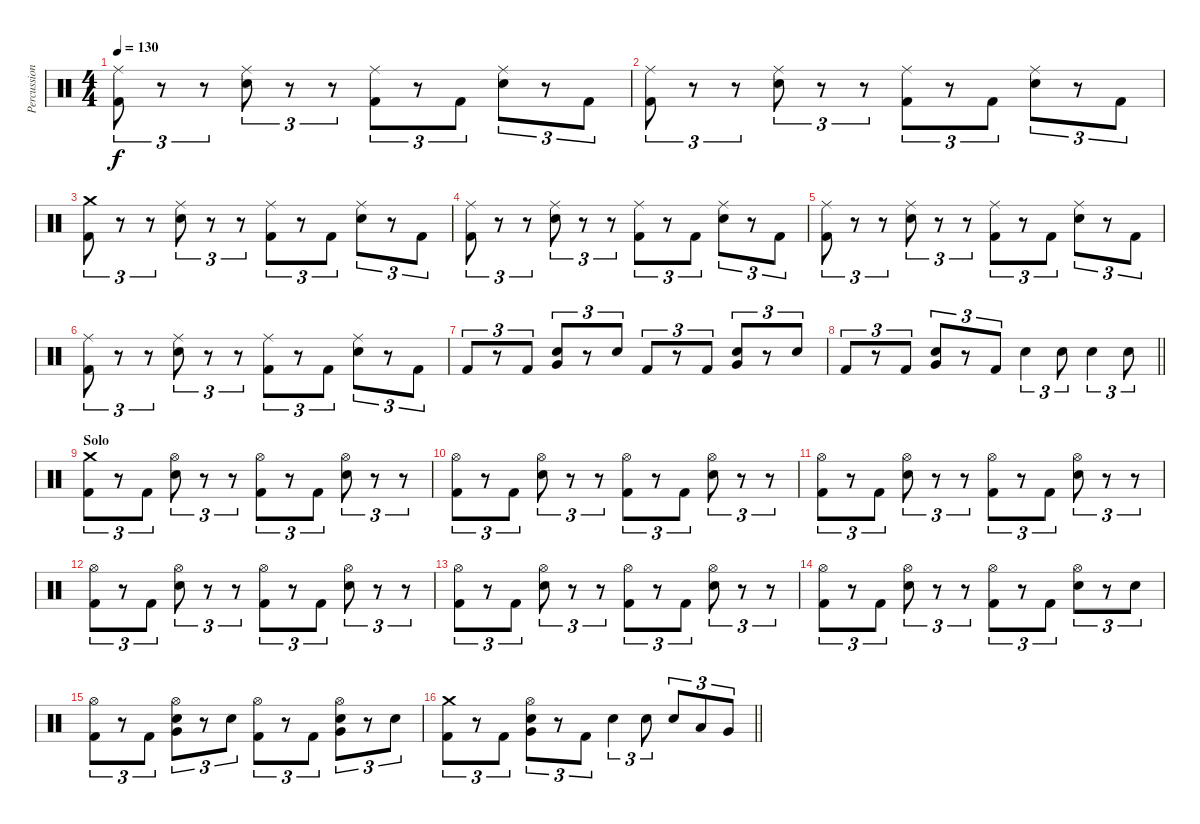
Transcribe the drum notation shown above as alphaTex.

\track ("Percussion" "Percussion") {instrument percussion}
\staff {score}
\articulation defaults
\ts (4 4)
\tempo 130
\clef neutral
\ks c
("Ride (middle)" "Kick (hit) 2").8{tu (3 2) dy f} r.8{tu (3 2)} r.8{tu (3 2)} ("Ride (middle)" "Snare (hit) 2").8{tu (3 2)} r.8{tu (3 2)} r.8{tu (3 2)} ("Ride (middle)" "Kick (hit) 2").8{tu (3 2)} r.8{tu (3 2)} "Kick (hit) 2".8{tu (3 2)} ("Ride (middle)" "Snare (hit) 2").8{tu (3 2)} r.8{tu (3 2)} "Kick (hit) 2".8{tu (3 2)} |
("Ride (middle)" "Kick (hit) 2").8{tu (3 2)} r.8{tu (3 2)} r.8{tu (3 2)} ("Ride (middle)" "Snare (hit) 2").8{tu (3 2)} r.8{tu (3 2)} r.8{tu (3 2)} ("Ride (middle)" "Kick (hit) 2").8{tu (3 2)} r.8{tu (3 2)} "Kick (hit) 2".8{tu (3 2)} ("Ride (middle)" "Snare (hit) 2").8{tu (3 2)} r.8{tu (3 2)} "Kick (hit) 2".8{tu (3 2)} |
("Crash medium (hit)" "Kick (hit) 2").8{tu (3 2)} r.8{tu (3 2)} r.8{tu (3 2)} ("Ride (middle)" "Snare (hit) 2").8{tu (3 2)} r.8{tu (3 2)} r.8{tu (3 2)} ("Ride (middle)" "Kick (hit) 2").8{tu (3 2)} r.8{tu (3 2)} "Kick (hit) 2".8{tu (3 2)} ("Ride (middle)" "Snare (hit) 2").8{tu (3 2)} r.8{tu (3 2)} "Kick (hit) 2".8{tu (3 2)} |
("Ride (middle)" "Kick (hit) 2").8{tu (3 2)} r.8{tu (3 2)} r.8{tu (3 2)} ("Ride (middle)" "Snare (hit) 2").8{tu (3 2)} r.8{tu (3 2)} r.8{tu (3 2)} ("Ride (middle)" "Kick (hit) 2").8{tu (3 2)} r.8{tu (3 2)} "Kick (hit) 2".8{tu (3 2)} ("Ride (middle)" "Snare (hit) 2").8{tu (3 2)} r.8{tu (3 2)} "Kick (hit) 2".8{tu (3 2)} |
("Ride (middle)" "Kick (hit) 2").8{tu (3 2)} r.8{tu (3 2)} r.8{tu (3 2)} ("Ride (middle)" "Snare (hit) 2").8{tu (3 2)} r.8{tu (3 2)} r.8{tu (3 2)} ("Ride (middle)" "Kick (hit) 2").8{tu (3 2)} r.8{tu (3 2)} "Kick (hit) 2".8{tu (3 2)} ("Ride (middle)" "Snare (hit) 2").8{tu (3 2)} r.8{tu (3 2)} "Kick (hit) 2".8{tu (3 2)} |
("Ride (middle)" "Kick (hit) 2").8{tu (3 2)} r.8{tu (3 2)} r.8{tu (3 2)} ("Ride (middle)" "Snare (hit) 2").8{tu (3 2)} r.8{tu (3 2)} r.8{tu (3 2)} ("Ride (middle)" "Kick (hit) 2").8{tu (3 2)} r.8{tu (3 2)} "Kick (hit) 2".8{tu (3 2)} ("Ride (middle)" "Snare (hit) 2").8{tu (3 2)} r.8{tu (3 2)} "Kick (hit) 2".8{tu (3 2)} |
"Kick (hit) 2".8{tu (3 2)} r.8{tu (3 2)} "Kick (hit) 2".8{tu (3 2)} ("Very Low Tom (hit)" "Snare (hit) 2").8{tu (3 2)} r.8{tu (3 2)} "Snare (hit) 2".8{tu (3 2)} "Kick (hit) 2".8{tu (3 2)} r.8{tu (3 2)} "Kick (hit) 2".8{tu (3 2)} ("Very Low Tom (hit)" "Snare (hit) 2").8{tu (3 2)} r.8{tu (3 2)} "Snare (hit) 2".8{tu (3 2)} |
\barLineRight lightlight "Kick (hit) 2".8{tu (3 2)}
r.8{tu (3 2)} "Kick (hit) 2".8{tu (3 2)} ("Very Low Tom (hit)" "Snare (hit) 2").8{tu (3 2)} r.8{tu (3 2)} "Kick (hit) 2".8{tu (3 2)} "Snare (hit) 2".4{tu (3 2)} "Snare (hit) 2".8{tu (3 2)} "Snare (hit) 2".4{tu (3 2)} "Snare (hit) 2".8{tu (3 2)} |
\section ("" "Solo")
("Crash medium (hit)" "Kick (hit) 2").8{tu (3 2)} r.8{tu (3 2)} "Kick (hit) 2".8{tu (3 2)} ("Hi-Hat (open)" "Snare (hit) 2").8{tu (3 2)} r.8{tu (3 2)} r.8{tu (3 2)} ("Hi-Hat (open)" "Kick (hit) 2").8{tu (3 2)} r.8{tu (3 2)} "Kick (hit) 2".8{tu (3 2)} ("Hi-Hat (open)" "Snare (hit) 2").8{tu (3 2)} r.8{tu (3 2)} r.8{tu (3 2)} |
("Hi-Hat (open)" "Kick (hit) 2").8{tu (3 2)} r.8{tu (3 2)} "Kick (hit) 2".8{tu (3 2)} ("Hi-Hat (open)" "Snare (hit) 2").8{tu (3 2)} r.8{tu (3 2)} r.8{tu (3 2)} ("Hi-Hat (open)" "Kick (hit) 2").8{tu (3 2)} r.8{tu (3 2)} "Kick (hit) 2".8{tu (3 2)} ("Hi-Hat (open)" "Snare (hit) 2").8{tu (3 2)} r.8{tu (3 2)} r.8{tu (3 2)} |
("Hi-Hat (open)" "Kick (hit) 2").8{tu (3 2)} r.8{tu (3 2)} "Kick (hit) 2".8{tu (3 2)} ("Hi-Hat (open)" "Snare (hit) 2").8{tu (3 2)} r.8{tu (3 2)} r.8{tu (3 2)} ("Hi-Hat (open)" "Kick (hit) 2").8{tu (3 2)} r.8{tu (3 2)} "Kick (hit) 2".8{tu (3 2)} ("Hi-Hat (open)" "Snare (hit) 2").8{tu (3 2)} r.8{tu (3 2)} r.8{tu (3 2)} |
("Hi-Hat (open)" "Kick (hit) 2").8{tu (3 2)} r.8{tu (3 2)} "Kick (hit) 2".8{tu (3 2)} ("Hi-Hat (open)" "Snare (hit) 2").8{tu (3 2)} r.8{tu (3 2)} r.8{tu (3 2)} ("Hi-Hat (open)" "Kick (hit) 2").8{tu (3 2)} r.8{tu (3 2)} "Kick (hit) 2".8{tu (3 2)} ("Hi-Hat (open)" "Snare (hit) 2").8{tu (3 2)} r.8{tu (3 2)} r.8{tu (3 2)} |
("Hi-Hat (open)" "Kick (hit) 2").8{tu (3 2)} r.8{tu (3 2)} "Kick (hit) 2".8{tu (3 2)} ("Hi-Hat (open)" "Snare (hit) 2").8{tu (3 2)} r.8{tu (3 2)} r.8{tu (3 2)} ("Hi-Hat (open)" "Kick (hit) 2").8{tu (3 2)} r.8{tu (3 2)} "Kick (hit) 2".8{tu (3 2)} ("Hi-Hat (open)" "Snare (hit) 2").8{tu (3 2)} r.8{tu (3 2)} r.8{tu (3 2)} |
("Hi-Hat (open)" "Kick (hit) 2").8{tu (3 2)} r.8{tu (3 2)} "Kick (hit) 2".8{tu (3 2)} ("Hi-Hat (open)" "Snare (hit) 2").8{tu (3 2)} r.8{tu (3 2)} r.8{tu (3 2)} ("Hi-Hat (open)" "Kick (hit) 2").8{tu (3 2)} r.8{tu (3 2)} "Kick (hit) 2".8{tu (3 2)} ("Hi-Hat (open)" "Snare (hit) 2").8{tu (3 2)} r.8{tu (3 2)} "Snare (hit) 2".8{tu (3 2)} |
("Hi-Hat (open)" "Kick (hit) 2").8{tu (3 2)} r.8{tu (3 2)} "Kick (hit) 2".8{tu (3 2)} ("Hi-Hat (open)" "Very Low Tom (hit)" "Snare (hit) 2").8{tu (3 2)} r.8{tu (3 2)} "Snare (hit) 2".8{tu (3 2)} ("Hi-Hat (open)" "Kick (hit) 2").8{tu (3 2)} r.8{tu (3 2)} "Kick (hit) 2".8{tu (3 2)} ("Hi-Hat (open)" "Very Low Tom (hit)" "Snare (hit) 2").8{tu (3 2)} r.8{tu (3 2)} "Snare (hit) 2".8{tu (3 2)} |
\barLineRight lightlight
("Crash medium (hit)" "Kick (hit) 2").8{tu (3 2)} r.8{tu (3 2)} "Kick (hit) 2".8{tu (3 2)} ("Hi-Hat (open)" "Very Low Tom (hit)" "Snare (hit) 2").8{tu (3 2)} r.8{tu (3 2)} "Kick (hit) 2".8{tu (3 2)} "Snare (hit) 2".4{tu (3 2)} "Snare (hit) 2".8{tu (3 2)} "Snare (hit) 2".8{tu (3 2)} "Low Tom (hit)".8{tu (3 2)} "Very Low Tom (hit)".8{tu (3 2)}
